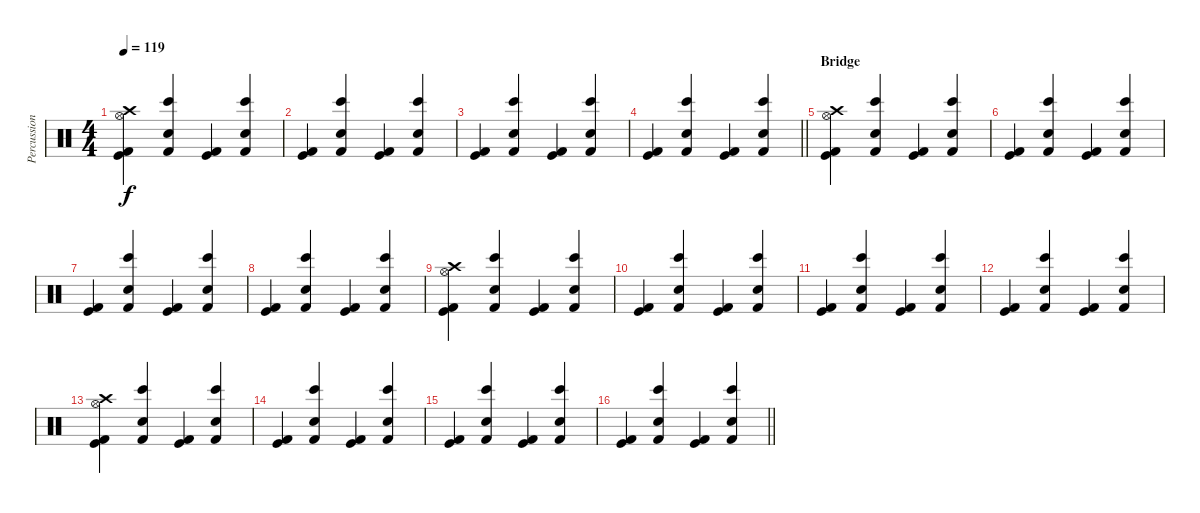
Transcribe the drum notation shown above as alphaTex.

\track ("Percussion" "Percussion") {instrument percussion}
\staff {score}
\articulation defaults
\ts (4 4)
\tempo 119
\clef neutral
\ks c
("Crash high (hit)" "Hi-Hat (open)" "Kick (hit)" "Kick (hit) 2").4{dy f} ("Bongo High (hit)" "Hand Clap (hit)" "Kick (hit) 2").4 ("Kick (hit)" "Kick (hit) 2").4 ("Bongo High (hit)" "Hand Clap (hit)" "Kick (hit) 2").4 |
("Kick (hit)" "Kick (hit) 2").4 ("Bongo High (hit)" "Hand Clap (hit)" "Kick (hit) 2").4 ("Kick (hit)" "Kick (hit) 2").4 ("Bongo High (hit)" "Hand Clap (hit)" "Kick (hit) 2").4 |
("Kick (hit)" "Kick (hit) 2").4 ("Bongo High (hit)" "Hand Clap (hit)" "Kick (hit) 2").4 ("Kick (hit)" "Kick (hit) 2").4 ("Bongo High (hit)" "Hand Clap (hit)" "Kick (hit) 2").4 |
\barLineRight lightlight
("Kick (hit)" "Kick (hit) 2").4 ("Bongo High (hit)" "Hand Clap (hit)" "Kick (hit) 2").4 ("Kick (hit)" "Kick (hit) 2").4 ("Bongo High (hit)" "Hand Clap (hit)" "Kick (hit) 2").4 |
\section ("" "Bridge")
("Crash high (hit)" "Hi-Hat (open)" "Kick (hit)" "Kick (hit) 2").4 ("Bongo High (hit)" "Hand Clap (hit)" "Kick (hit) 2").4 ("Kick (hit)" "Kick (hit) 2").4 ("Bongo High (hit)" "Hand Clap (hit)" "Kick (hit) 2").4 |
("Kick (hit)" "Kick (hit) 2").4 ("Bongo High (hit)" "Hand Clap (hit)" "Kick (hit) 2").4 ("Kick (hit)" "Kick (hit) 2").4 ("Bongo High (hit)" "Hand Clap (hit)" "Kick (hit) 2").4 |
("Kick (hit)" "Kick (hit) 2").4 ("Bongo High (hit)" "Hand Clap (hit)" "Kick (hit) 2").4 ("Kick (hit)" "Kick (hit) 2").4 ("Bongo High (hit)" "Hand Clap (hit)" "Kick (hit) 2").4 |
("Kick (hit)" "Kick (hit) 2").4 ("Bongo High (hit)" "Hand Clap (hit)" "Kick (hit) 2").4 ("Kick (hit)" "Kick (hit) 2").4 ("Bongo High (hit)" "Hand Clap (hit)" "Kick (hit) 2").4 |
("Crash high (hit)" "Hi-Hat (open)" "Kick (hit)" "Kick (hit) 2").4 ("Bongo High (hit)" "Hand Clap (hit)" "Kick (hit) 2").4 ("Kick (hit)" "Kick (hit) 2").4 ("Bongo High (hit)" "Hand Clap (hit)" "Kick (hit) 2").4 |
("Kick (hit)" "Kick (hit) 2").4 ("Bongo High (hit)" "Hand Clap (hit)" "Kick (hit) 2").4 ("Kick (hit)" "Kick (hit) 2").4 ("Bongo High (hit)" "Hand Clap (hit)" "Kick (hit) 2").4 |
("Kick (hit)" "Kick (hit) 2").4 ("Bongo High (hit)" "Hand Clap (hit)" "Kick (hit) 2").4 ("Kick (hit)" "Kick (hit) 2").4 ("Bongo High (hit)" "Hand Clap (hit)" "Kick (hit) 2").4 |
("Kick (hit)" "Kick (hit) 2").4 ("Bongo High (hit)" "Hand Clap (hit)" "Kick (hit) 2").4 ("Kick (hit)" "Kick (hit) 2").4 ("Bongo High (hit)" "Hand Clap (hit)" "Kick (hit) 2").4 |
("Crash high (hit)" "Hi-Hat (open)" "Kick (hit)" "Kick (hit) 2").4 ("Bongo High (hit)" "Hand Clap (hit)" "Kick (hit) 2").4 ("Kick (hit)" "Kick (hit) 2").4 ("Bongo High (hit)" "Hand Clap (hit)" "Kick (hit) 2").4 |
("Kick (hit)" "Kick (hit) 2").4 ("Bongo High (hit)" "Hand Clap (hit)" "Kick (hit) 2").4 ("Kick (hit)" "Kick (hit) 2").4 ("Bongo High (hit)" "Hand Clap (hit)" "Kick (hit) 2").4 |
("Kick (hit)" "Kick (hit) 2").4 ("Bongo High (hit)" "Hand Clap (hit)" "Kick (hit) 2").4 ("Kick (hit)" "Kick (hit) 2").4 ("Bongo High (hit)" "Hand Clap (hit)" "Kick (hit) 2").4 |
\barLineRight lightlight
("Kick (hit)" "Kick (hit) 2").4 ("Bongo High (hit)" "Hand Clap (hit)" "Kick (hit) 2").4 ("Kick (hit)" "Kick (hit) 2").4 ("Bongo High (hit)" "Hand Clap (hit)" "Kick (hit) 2").4
